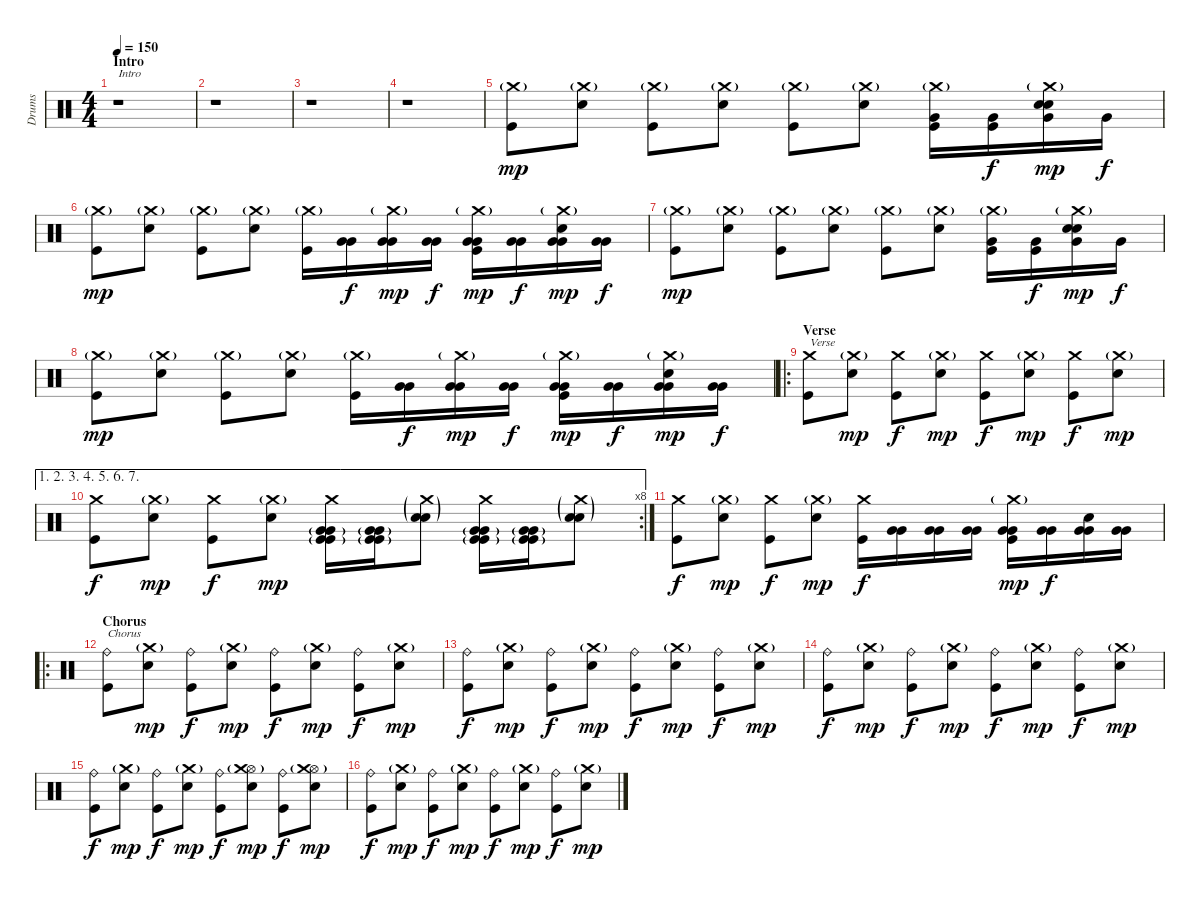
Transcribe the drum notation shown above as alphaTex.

\track ("Drums" "Drums") {instrument percussion}
\staff {score}
\articulation defaults
\ts (4 4)
\section ("" "Intro")
\tempo 150
\clef neutral
\ks c
r.1{txt "Intro" dy mp} |
r.1 |
r.1 |
r.1 |
("Crash medium (hit)"{g} "Kick (hit)").8 ("Crash medium (hit)"{g} "Snare (hit) 2").8 ("Crash medium (hit)"{g} "Kick (hit)").8 ("Crash medium (hit)"{g} "Snare (hit) 2").8 ("Crash medium (hit)"{g} "Kick (hit)").8 ("Crash medium (hit)"{g} "Snare (hit) 2").8 ("Crash medium (hit)"{g} "Very Low Tom (hit)" "Kick (hit)").16 ("Very Low Tom (hit)" "Kick (hit)").16{dy f} ("Crash medium (hit)"{g} "Very Low Tom (hit)" "Snare (hit) 2" "Snare (hit) 2").16{dy mp} "Very Low Tom (hit)".16{dy f} |
("Crash medium (hit)"{g} "Kick (hit)").8{dy mp} ("Crash medium (hit)"{g} "Snare (hit) 2").8 ("Crash medium (hit)"{g} "Kick (hit)").8 ("Crash medium (hit)"{g} "Snare (hit) 2").8 ("Crash medium (hit)"{g} "Kick (hit)").16 ("Very Low Tom (hit)" "Very Low Tom (hit)").16{dy f} ("Crash medium (hit)"{g} "Very Low Tom (hit)" "Very Low Tom (hit)").16{dy mp} ("Very Low Tom (hit)" "Very Low Tom (hit)").16{dy f} ("Crash medium (hit)"{g} "Very Low Tom (hit)" "Very Low Tom (hit)" "Kick (hit)").16{dy mp} ("Very Low Tom (hit)" "Very Low Tom (hit)").16{dy f} ("Crash medium (hit)"{g} "Very Low Tom (hit)" "Very Low Tom (hit)" "Snare (hit) 2").16{dy mp} ("Very Low Tom (hit)" "Very Low Tom (hit)").16{dy f} |
("Crash medium (hit)"{g} "Kick (hit)").8{dy mp} ("Crash medium (hit)"{g} "Snare (hit) 2").8 ("Crash medium (hit)"{g} "Kick (hit)").8 ("Crash medium (hit)"{g} "Snare (hit) 2").8 ("Crash medium (hit)"{g} "Kick (hit)").8 ("Crash medium (hit)"{g} "Snare (hit) 2").8 ("Crash medium (hit)"{g} "Very Low Tom (hit)" "Kick (hit)").16 ("Very Low Tom (hit)" "Kick (hit)").16{dy f} ("Crash medium (hit)"{g} "Very Low Tom (hit)" "Snare (hit) 2" "Snare (hit) 2").16{dy mp} "Very Low Tom (hit)".16{dy f} |
("Crash medium (hit)"{g} "Kick (hit)").8{dy mp} ("Crash medium (hit)"{g} "Snare (hit) 2").8 ("Crash medium (hit)"{g} "Kick (hit)").8 ("Crash medium (hit)"{g} "Snare (hit) 2").8 ("Crash medium (hit)"{g} "Kick (hit)").16 ("Very Low Tom (hit)" "Very Low Tom (hit)").16{dy f} ("Crash medium (hit)"{g} "Very Low Tom (hit)" "Very Low Tom (hit)").16{dy mp} ("Very Low Tom (hit)" "Very Low Tom (hit)").16{dy f} ("Crash medium (hit)"{g} "Very Low Tom (hit)" "Very Low Tom (hit)" "Kick (hit)").16{dy mp} ("Very Low Tom (hit)" "Very Low Tom (hit)").16{dy f} ("Crash medium (hit)"{g} "Very Low Tom (hit)" "Very Low Tom (hit)" "Snare (hit) 2").16{dy mp} ("Very Low Tom (hit)" "Very Low Tom (hit)").16{dy f} |
\ro
\section ("" "Verse")
("Crash medium (hit)" "Kick (hit)").8{txt "Verse"} ("Crash medium (hit)"{g} "Snare (hit) 2").8{dy mp} ("Crash medium (hit)" "Kick (hit)").8{dy f} ("Crash medium (hit)"{g} "Snare (hit) 2").8{dy mp} ("Crash medium (hit)" "Kick (hit)").8{dy f} ("Crash medium (hit)"{g} "Snare (hit) 2").8{dy mp} ("Crash medium (hit)" "Kick (hit)").8{dy f} ("Crash medium (hit)"{g} "Snare (hit) 2").8{dy mp} |
\ae (1 2 3 4 5 6 7)
\rc 8
("Crash medium (hit)" "Kick (hit)").8{dy f} ("Crash medium (hit)"{g} "Snare (hit) 2").8{dy mp} ("Crash medium (hit)" "Kick (hit)").8{dy f} ("Crash medium (hit)"{g} "Snare (hit) 2").8{dy mp} ("Crash medium (hit)" "Very Low Tom (hit)"{g} "Very Low Tom (hit)" "Kick (hit)"{g} "Kick (hit)").16 ("Very Low Tom (hit)"{g} "Very Low Tom (hit)" "Kick (hit)"{g} "Kick (hit)").16 ("Crash medium (hit)"{g} "Snare (hit) 2"{g} "Snare (hit) 2").8 ("Crash medium (hit)" "Very Low Tom (hit)"{g} "Very Low Tom (hit)" "Kick (hit)"{g} "Kick (hit)").16 ("Very Low Tom (hit)"{g} "Very Low Tom (hit)" "Kick (hit)"{g} "Kick (hit)").16 ("Crash medium (hit)"{g} "Snare (hit) 2"{g} "Snare (hit) 2").8 |
("Crash medium (hit)" "Kick (hit)").8{dy f} ("Crash medium (hit)"{g} "Snare (hit) 2").8{dy mp} ("Crash medium (hit)" "Kick (hit)").8{dy f} ("Crash medium (hit)"{g} "Snare (hit) 2").8{dy mp} ("Crash medium (hit)" "Kick (hit)").16{dy f} ("Very Low Tom (hit)" "Very Low Tom (hit)").16 ("Very Low Tom (hit)" "Very Low Tom (hit)").16 ("Very Low Tom (hit)" "Very Low Tom (hit)").16 ("Crash medium (hit)"{g} "Very Low Tom (hit)" "Very Low Tom (hit)" "Kick (hit)").16{dy mp} ("Very Low Tom (hit)" "Very Low Tom (hit)").16{dy f} ("Very Low Tom (hit)" "Very Low Tom (hit)" "Snare (hit) 2").16 ("Very Low Tom (hit)" "Very Low Tom (hit)").16 |
\ro
\section ("" "Chorus")
("Ride (bell)" "Kick (hit)").8{txt "Chorus"} ("Crash medium (hit)"{g} "Snare (hit) 2").8{dy mp} ("Ride (bell)" "Kick (hit)").8{dy f} ("Crash medium (hit)"{g} "Snare (hit) 2").8{dy mp} ("Ride (bell)" "Kick (hit)").8{dy f} ("Crash medium (hit)"{g} "Snare (hit) 2").8{dy mp} ("Ride (bell)" "Kick (hit)").8{dy f} ("Crash medium (hit)"{g} "Snare (hit) 2").8{dy mp} |
("Ride (bell)" "Kick (hit)").8{dy f} ("Crash medium (hit)"{g} "Snare (hit) 2").8{dy mp} ("Ride (bell)" "Kick (hit)").8{dy f} ("Crash medium (hit)"{g} "Snare (hit) 2").8{dy mp} ("Ride (bell)" "Kick (hit)").8{dy f} ("Crash medium (hit)"{g} "Snare (hit) 2").8{dy mp} ("Ride (bell)" "Kick (hit)").8{dy f} ("Crash medium (hit)"{g} "Snare (hit) 2").8{dy mp} |
("Ride (bell)" "Kick (hit)").8{dy f} ("Crash medium (hit)"{g} "Snare (hit) 2").8{dy mp} ("Ride (bell)" "Kick (hit)").8{dy f} ("Crash medium (hit)"{g} "Snare (hit) 2").8{dy mp} ("Ride (bell)" "Kick (hit)").8{dy f} ("Crash medium (hit)"{g} "Snare (hit) 2").8{dy mp} ("Ride (bell)" "Kick (hit)").8{dy f} ("Crash medium (hit)"{g} "Snare (hit) 2").8{dy mp} |
("Ride (bell)" "Kick (hit)").8{dy f} ("Crash medium (hit)"{g} "Snare (hit) 2").8{dy mp} ("Ride (bell)" "Kick (hit)").8{dy f} ("Crash medium (hit)"{g} "Snare (hit) 2").8{dy mp} ("Ride (bell)" "Kick (hit)").8{dy f} ("Hi-Hat (open)" "Crash medium (hit)"{g} "Snare (hit) 2").8{dy mp} ("Ride (bell)" "Kick (hit)").8{dy f} ("Hi-Hat (open)" "Crash medium (hit)"{g} "Snare (hit) 2").8{dy mp} |
("Ride (bell)" "Kick (hit)").8{dy f} ("Crash medium (hit)"{g} "Snare (hit) 2").8{dy mp} ("Ride (bell)" "Kick (hit)").8{dy f} ("Crash medium (hit)"{g} "Snare (hit) 2").8{dy mp} ("Ride (bell)" "Kick (hit)").8{dy f} ("Crash medium (hit)"{g} "Snare (hit) 2").8{dy mp} ("Ride (bell)" "Kick (hit)").8{dy f} ("Crash medium (hit)"{g} "Snare (hit) 2").8{dy mp}
